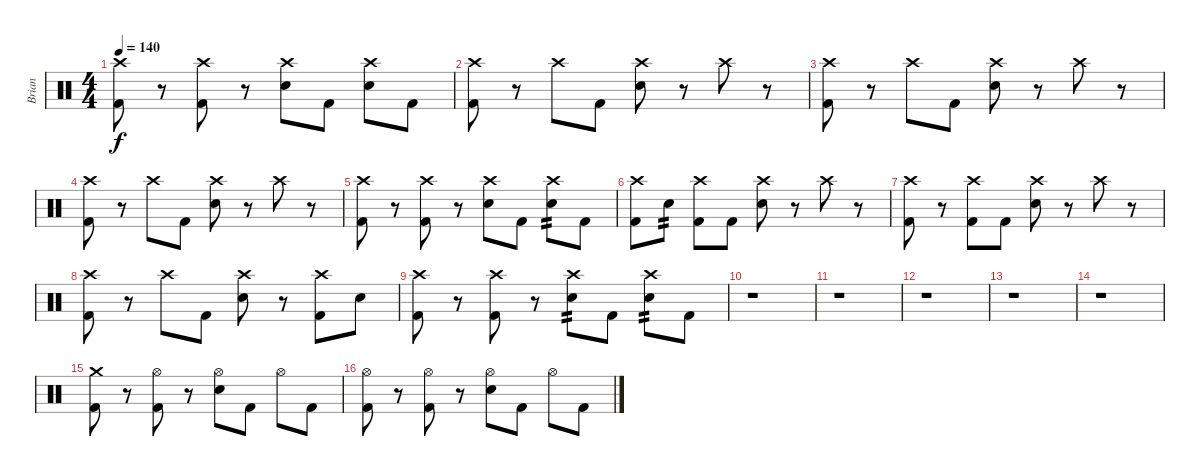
\track ("Brian" "Brian") {instrument percussion}
\staff {score}
\articulation defaults
\ts (4 4)
\tempo 140
\clef neutral
\ks c
("Crash high (hit)" "Kick (hit) 2").8{dy f} r.8 ("Crash high (hit)" "Kick (hit) 2").8 r.8 ("Crash high (hit)" "Electric Snare (hit)").8 "Kick (hit) 2".8 ("Crash high (hit)" "Electric Snare (hit)").8 "Kick (hit) 2".8 |
("Crash high (hit)" "Kick (hit) 2").8 r.8 "Crash high (hit)".8 "Kick (hit) 2".8 ("Crash high (hit)" "Electric Snare (hit)").8 r.8 "Crash high (hit)".8 r.8 |
("Crash high (hit)" "Kick (hit) 2").8 r.8 "Crash high (hit)".8 "Kick (hit) 2".8 ("Crash high (hit)" "Electric Snare (hit)").8 r.8 "Crash high (hit)".8 r.8 |
("Crash high (hit)" "Kick (hit) 2").8 r.8 "Crash high (hit)".8 "Kick (hit) 2".8 ("Crash high (hit)" "Electric Snare (hit)").8 r.8 "Crash high (hit)".8 r.8 |
("Crash high (hit)" "Kick (hit) 2").8 r.8 ("Crash high (hit)" "Kick (hit) 2").8 r.8 ("Crash high (hit)" "Electric Snare (hit)").8 "Kick (hit) 2".8 ("Crash high (hit)" "Electric Snare (hit)").8{tp 2} "Kick (hit) 2".8 |
("Crash high (hit)" "Kick (hit) 2").8 "Electric Snare (hit)".8{tp 2} ("Crash high (hit)" "Kick (hit) 2").8 "Kick (hit) 2".8 ("Crash high (hit)" "Electric Snare (hit)").8 r.8 "Crash high (hit)".8 r.8 |
("Crash high (hit)" "Kick (hit) 2").8 r.8 ("Crash high (hit)" "Kick (hit) 2").8 "Kick (hit) 2".8 ("Crash high (hit)" "Electric Snare (hit)").8 r.8 "Crash high (hit)".8 r.8 |
("Crash high (hit)" "Kick (hit) 2").8 r.8 "Crash high (hit)".8 "Kick (hit) 2".8 ("Crash high (hit)" "Electric Snare (hit)").8 r.8 ("Crash high (hit)" "Kick (hit) 2").8 "Electric Snare (hit)".8 |
("Crash high (hit)" "Kick (hit) 2").8 r.8 ("Crash high (hit)" "Kick (hit) 2").8 r.8 ("Crash high (hit)" "Electric Snare (hit)").8{tp 2} "Kick (hit) 2".8 ("Crash high (hit)" "Electric Snare (hit)").8{tp 2} "Kick (hit) 2".8 |
r.1 |
r.1 |
r.1 |
r.1 |
r.1 |
("Crash medium (hit)" "Kick (hit) 2").8 r.8 ("Hi-Hat (open)" "Kick (hit) 2").8 r.8 ("Hi-Hat (open)" "Electric Snare (hit)").8 "Kick (hit) 2".8 "Hi-Hat (open)".8 "Kick (hit) 2".8 |
("Hi-Hat (open)" "Kick (hit) 2").8 r.8 ("Hi-Hat (open)" "Kick (hit) 2").8 r.8 ("Hi-Hat (open)" "Electric Snare (hit)").8 "Kick (hit) 2".8 "Hi-Hat (open)".8 "Kick (hit) 2".8
